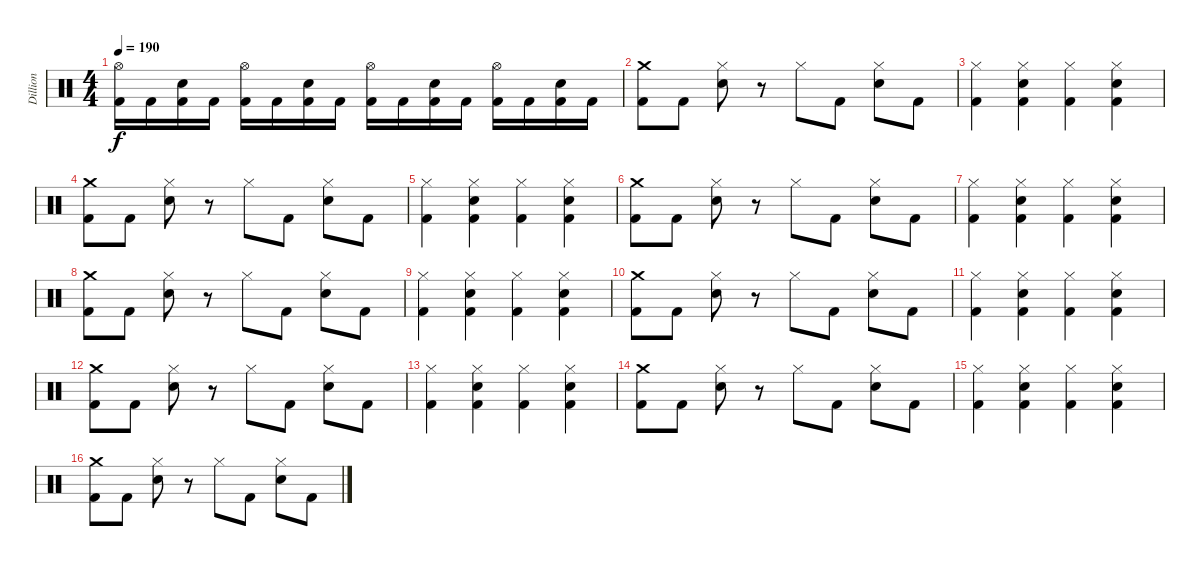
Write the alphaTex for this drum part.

\track ("Dillion" "Dillion") {instrument percussion}
\staff {score}
\articulation defaults
\ts (4 4)
\tempo 190
\clef neutral
\ks c
("Hi-Hat (open)" "Kick (hit) 2").16{dy f} "Kick (hit) 2".16 ("Electric Snare (hit)" "Kick (hit) 2").16 "Kick (hit) 2".16 ("Hi-Hat (open)" "Kick (hit) 2").16 "Kick (hit) 2".16 ("Electric Snare (hit)" "Kick (hit) 2").16 "Kick (hit) 2".16 ("Hi-Hat (open)" "Kick (hit) 2").16 "Kick (hit) 2".16 ("Electric Snare (hit)" "Kick (hit) 2").16 "Kick (hit) 2".16 ("Hi-Hat (open)" "Kick (hit) 2").16 "Kick (hit) 2".16 ("Electric Snare (hit)" "Kick (hit) 2").16 "Kick (hit) 2".16 |
("Crash medium (hit)" "Kick (hit) 2").8 "Kick (hit) 2".8 ("Hi-Hat (closed)" "Electric Snare (hit)").8 r.8 "Hi-Hat (closed)".8 "Kick (hit) 2".8 ("Hi-Hat (closed)" "Electric Snare (hit)").8 "Kick (hit) 2".8 |
("Hi-Hat (closed)" "Kick (hit) 2").4 ("Hi-Hat (closed)" "Electric Snare (hit)" "Kick (hit) 2").4 ("Hi-Hat (closed)" "Kick (hit) 2").4 ("Hi-Hat (closed)" "Electric Snare (hit)" "Kick (hit) 2").4 |
("Crash medium (hit)" "Kick (hit) 2").8 "Kick (hit) 2".8 ("Hi-Hat (closed)" "Electric Snare (hit)").8 r.8 "Hi-Hat (closed)".8 "Kick (hit) 2".8 ("Hi-Hat (closed)" "Electric Snare (hit)").8 "Kick (hit) 2".8 |
("Hi-Hat (closed)" "Kick (hit) 2").4 ("Hi-Hat (closed)" "Electric Snare (hit)" "Kick (hit) 2").4 ("Hi-Hat (closed)" "Kick (hit) 2").4 ("Hi-Hat (closed)" "Electric Snare (hit)" "Kick (hit) 2").4 |
("Crash medium (hit)" "Kick (hit) 2").8 "Kick (hit) 2".8 ("Hi-Hat (closed)" "Electric Snare (hit)").8 r.8 "Hi-Hat (closed)".8 "Kick (hit) 2".8 ("Hi-Hat (closed)" "Electric Snare (hit)").8 "Kick (hit) 2".8 |
("Hi-Hat (closed)" "Kick (hit) 2").4 ("Hi-Hat (closed)" "Electric Snare (hit)" "Kick (hit) 2").4 ("Hi-Hat (closed)" "Kick (hit) 2").4 ("Hi-Hat (closed)" "Electric Snare (hit)" "Kick (hit) 2").4 |
("Crash medium (hit)" "Kick (hit) 2").8 "Kick (hit) 2".8 ("Hi-Hat (closed)" "Electric Snare (hit)").8 r.8 "Hi-Hat (closed)".8 "Kick (hit) 2".8 ("Hi-Hat (closed)" "Electric Snare (hit)").8 "Kick (hit) 2".8 |
("Hi-Hat (closed)" "Kick (hit) 2").4 ("Hi-Hat (closed)" "Electric Snare (hit)" "Kick (hit) 2").4 ("Hi-Hat (closed)" "Kick (hit) 2").4 ("Hi-Hat (closed)" "Electric Snare (hit)" "Kick (hit) 2").4 |
("Crash medium (hit)" "Kick (hit) 2").8 "Kick (hit) 2".8 ("Hi-Hat (closed)" "Electric Snare (hit)").8 r.8 "Hi-Hat (closed)".8 "Kick (hit) 2".8 ("Hi-Hat (closed)" "Electric Snare (hit)").8 "Kick (hit) 2".8 |
("Hi-Hat (closed)" "Kick (hit) 2").4 ("Hi-Hat (closed)" "Electric Snare (hit)" "Kick (hit) 2").4 ("Hi-Hat (closed)" "Kick (hit) 2").4 ("Hi-Hat (closed)" "Electric Snare (hit)" "Kick (hit) 2").4 |
("Crash medium (hit)" "Kick (hit) 2").8 "Kick (hit) 2".8 ("Hi-Hat (closed)" "Electric Snare (hit)").8 r.8 "Hi-Hat (closed)".8 "Kick (hit) 2".8 ("Hi-Hat (closed)" "Electric Snare (hit)").8 "Kick (hit) 2".8 |
("Hi-Hat (closed)" "Kick (hit) 2").4 ("Hi-Hat (closed)" "Electric Snare (hit)" "Kick (hit) 2").4 ("Hi-Hat (closed)" "Kick (hit) 2").4 ("Hi-Hat (closed)" "Electric Snare (hit)" "Kick (hit) 2").4 |
("Crash medium (hit)" "Kick (hit) 2").8 "Kick (hit) 2".8 ("Hi-Hat (closed)" "Electric Snare (hit)").8 r.8 "Hi-Hat (closed)".8 "Kick (hit) 2".8 ("Hi-Hat (closed)" "Electric Snare (hit)").8 "Kick (hit) 2".8 |
("Hi-Hat (closed)" "Kick (hit) 2").4 ("Hi-Hat (closed)" "Electric Snare (hit)" "Kick (hit) 2").4 ("Hi-Hat (closed)" "Kick (hit) 2").4 ("Hi-Hat (closed)" "Electric Snare (hit)" "Kick (hit) 2").4 |
("Crash medium (hit)" "Kick (hit) 2").8 "Kick (hit) 2".8 ("Hi-Hat (closed)" "Electric Snare (hit)").8 r.8 "Hi-Hat (closed)".8 "Kick (hit) 2".8 ("Hi-Hat (closed)" "Electric Snare (hit)").8 "Kick (hit) 2".8
